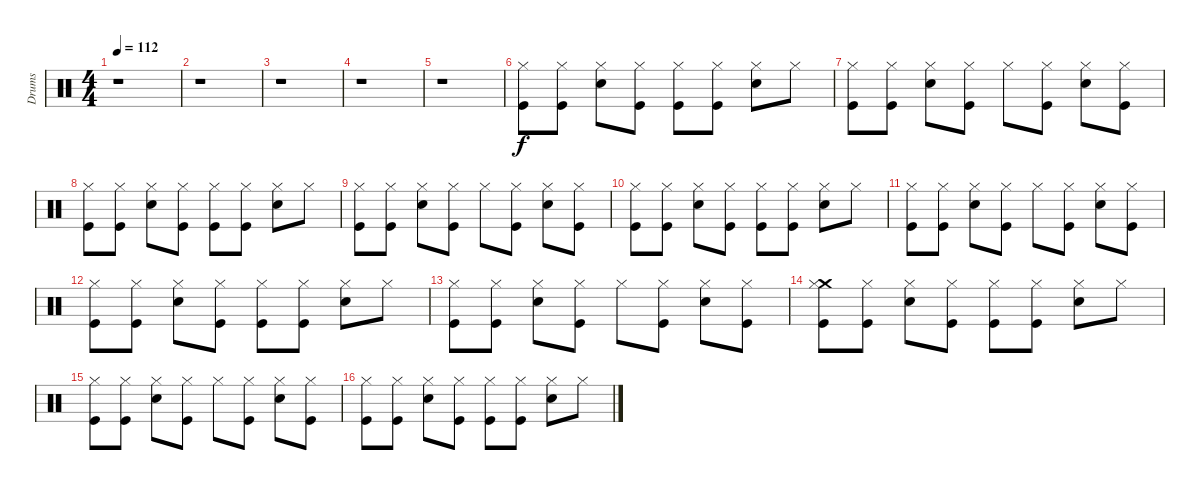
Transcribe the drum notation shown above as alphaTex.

\track ("Drums" "Drums") {instrument percussion}
\staff {score}
\articulation defaults
\ts (4 4)
\tempo 112
\clef neutral
\ks c
r.1{dy f} |
r.1 |
r.1 |
r.1 |
r.1 |
("Hi-Hat (closed)" "Kick (hit)").8 ("Hi-Hat (closed)" "Kick (hit)").8 ("Hi-Hat (closed)" "Snare (hit) 2").8 ("Hi-Hat (closed)" "Kick (hit)").8 ("Hi-Hat (closed)" "Kick (hit)").8 ("Hi-Hat (closed)" "Kick (hit)").8 ("Hi-Hat (closed)" "Snare (hit) 2").8 "Hi-Hat (closed)".8 |
("Hi-Hat (closed)" "Kick (hit)").8 ("Hi-Hat (closed)" "Kick (hit)").8 ("Hi-Hat (closed)" "Snare (hit) 2").8 ("Hi-Hat (closed)" "Kick (hit)").8 "Hi-Hat (closed)".8 ("Hi-Hat (closed)" "Kick (hit)").8 ("Hi-Hat (closed)" "Snare (hit) 2").8 ("Hi-Hat (closed)" "Kick (hit)").8 |
("Hi-Hat (closed)" "Kick (hit)").8 ("Hi-Hat (closed)" "Kick (hit)").8 ("Hi-Hat (closed)" "Snare (hit) 2").8 ("Hi-Hat (closed)" "Kick (hit)").8 ("Hi-Hat (closed)" "Kick (hit)").8 ("Hi-Hat (closed)" "Kick (hit)").8 ("Hi-Hat (closed)" "Snare (hit) 2").8 "Hi-Hat (closed)".8 |
("Hi-Hat (closed)" "Kick (hit)").8 ("Hi-Hat (closed)" "Kick (hit)").8 ("Hi-Hat (closed)" "Snare (hit) 2").8 ("Hi-Hat (closed)" "Kick (hit)").8 "Hi-Hat (closed)".8 ("Hi-Hat (closed)" "Kick (hit)").8 ("Hi-Hat (closed)" "Snare (hit) 2").8 ("Hi-Hat (closed)" "Kick (hit)").8 |
("Hi-Hat (closed)" "Kick (hit)").8 ("Hi-Hat (closed)" "Kick (hit)").8 ("Hi-Hat (closed)" "Snare (hit) 2").8 ("Hi-Hat (closed)" "Kick (hit)").8 ("Hi-Hat (closed)" "Kick (hit)").8 ("Hi-Hat (closed)" "Kick (hit)").8 ("Hi-Hat (closed)" "Snare (hit) 2").8 "Hi-Hat (closed)".8 |
("Hi-Hat (closed)" "Kick (hit)").8 ("Hi-Hat (closed)" "Kick (hit)").8 ("Hi-Hat (closed)" "Snare (hit) 2").8 ("Hi-Hat (closed)" "Kick (hit)").8 "Hi-Hat (closed)".8 ("Hi-Hat (closed)" "Kick (hit)").8 ("Hi-Hat (closed)" "Snare (hit) 2").8 ("Hi-Hat (closed)" "Kick (hit)").8 |
("Hi-Hat (closed)" "Kick (hit)").8 ("Hi-Hat (closed)" "Kick (hit)").8 ("Hi-Hat (closed)" "Snare (hit) 2").8 ("Hi-Hat (closed)" "Kick (hit)").8 ("Hi-Hat (closed)" "Kick (hit)").8 ("Hi-Hat (closed)" "Kick (hit)").8 ("Hi-Hat (closed)" "Snare (hit) 2").8 "Hi-Hat (closed)".8 |
("Hi-Hat (closed)" "Kick (hit)").8 ("Hi-Hat (closed)" "Kick (hit)").8 ("Hi-Hat (closed)" "Snare (hit) 2").8 ("Hi-Hat (closed)" "Kick (hit)").8 "Hi-Hat (closed)".8 ("Hi-Hat (closed)" "Kick (hit)").8 ("Hi-Hat (closed)" "Snare (hit) 2").8 ("Hi-Hat (closed)" "Kick (hit)").8 |
("Crash medium (hit)" "Hi-Hat (closed)" "Kick (hit)").8 ("Hi-Hat (closed)" "Kick (hit)").8 ("Hi-Hat (closed)" "Snare (hit) 2").8 ("Hi-Hat (closed)" "Kick (hit)").8 ("Hi-Hat (closed)" "Kick (hit)").8 ("Hi-Hat (closed)" "Kick (hit)").8 ("Hi-Hat (closed)" "Snare (hit) 2").8 "Hi-Hat (closed)".8 |
("Hi-Hat (closed)" "Kick (hit)").8 ("Hi-Hat (closed)" "Kick (hit)").8 ("Hi-Hat (closed)" "Snare (hit) 2").8 ("Hi-Hat (closed)" "Kick (hit)").8 "Hi-Hat (closed)".8 ("Hi-Hat (closed)" "Kick (hit)").8 ("Hi-Hat (closed)" "Snare (hit) 2").8 ("Hi-Hat (closed)" "Kick (hit)").8 |
("Hi-Hat (closed)" "Kick (hit)").8 ("Hi-Hat (closed)" "Kick (hit)").8 ("Hi-Hat (closed)" "Snare (hit) 2").8 ("Hi-Hat (closed)" "Kick (hit)").8 ("Hi-Hat (closed)" "Kick (hit)").8 ("Hi-Hat (closed)" "Kick (hit)").8 ("Hi-Hat (closed)" "Snare (hit) 2").8 "Hi-Hat (closed)".8
